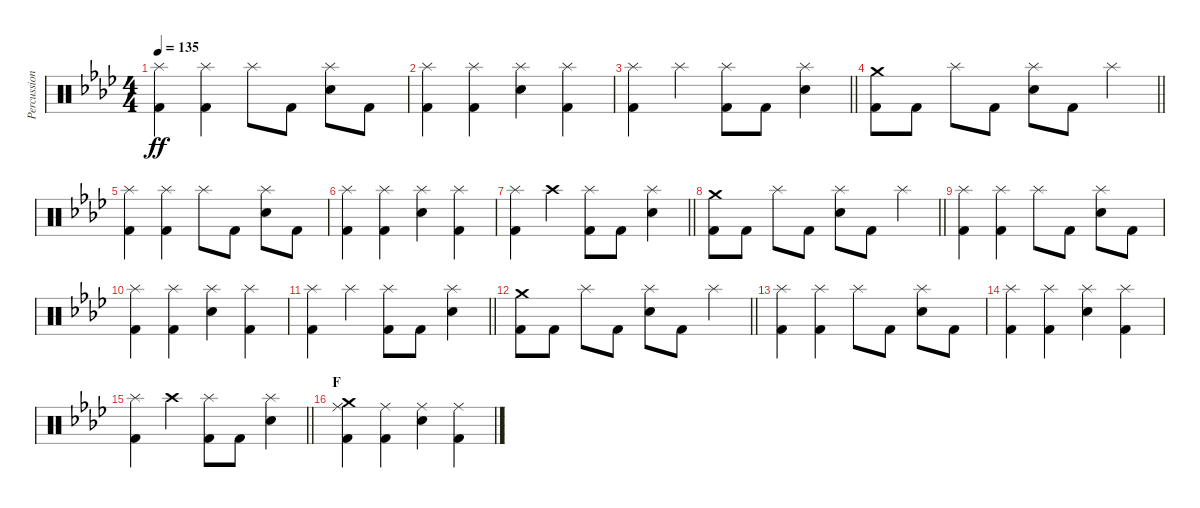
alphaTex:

\track ("Percussion" "Percussion") {instrument percussion}
\staff {score}
\articulation defaults
\ts (4 4)
\tempo 135
\clef neutral
\ks fminor
("Splash (hit)" "Kick (hit) 2").4{dy ff} ("Splash (hit)" "Kick (hit) 2").4 "Splash (hit)".8 "Kick (hit) 2".8 ("Splash (hit)" "Electric Snare (hit)").8 "Kick (hit) 2".8 |
("Splash (hit)" "Kick (hit) 2").4 ("Splash (hit)" "Kick (hit) 2").4 ("Splash (hit)" "Electric Snare (hit)").4 ("Splash (hit)" "Kick (hit) 2").4 |
\barLineRight lightlight
("Splash (hit)" "Kick (hit) 2").4 "Splash (hit)".4 ("Splash (hit)" "Kick (hit) 2").8 "Kick (hit) 2".8 ("Splash (hit)" "Electric Snare (hit)").4 |
\section ("" "")
\barLineRight lightlight
("Crash medium (hit)" "Kick (hit) 2").8 "Kick (hit) 2".8 "Splash (hit)".8 "Kick (hit) 2".8 ("Splash (hit)" "Electric Snare (hit)").8 "Kick (hit) 2".8 "Splash (hit)".4 |
("Splash (hit)" "Kick (hit) 2").4 ("Splash (hit)" "Kick (hit) 2").4 "Splash (hit)".8 "Kick (hit) 2".8 ("Splash (hit)" "Electric Snare (hit)").8 "Kick (hit) 2".8 |
("Splash (hit)" "Kick (hit) 2").4 ("Splash (hit)" "Kick (hit) 2").4 ("Splash (hit)" "Electric Snare (hit)").4 ("Splash (hit)" "Kick (hit) 2").4 |
\barLineRight lightlight
("Splash (hit)" "Kick (hit) 2").4 "Crash high (hit)".4 ("Splash (hit)" "Kick (hit) 2").8 "Kick (hit) 2".8 ("Splash (hit)" "Electric Snare (hit)").4 |
\section ("" "")
\barLineRight lightlight
("Crash medium (hit)" "Kick (hit) 2").8 "Kick (hit) 2".8 "Splash (hit)".8 "Kick (hit) 2".8 ("Splash (hit)" "Electric Snare (hit)").8 "Kick (hit) 2".8 "Splash (hit)".4 |
("Splash (hit)" "Kick (hit) 2").4 ("Splash (hit)" "Kick (hit) 2").4 "Splash (hit)".8 "Kick (hit) 2".8 ("Splash (hit)" "Electric Snare (hit)").8 "Kick (hit) 2".8 |
("Splash (hit)" "Kick (hit) 2").4 ("Splash (hit)" "Kick (hit) 2").4 ("Splash (hit)" "Electric Snare (hit)").4 ("Splash (hit)" "Kick (hit) 2").4 |
\barLineRight lightlight
("Splash (hit)" "Kick (hit) 2").4 "Splash (hit)".4 ("Splash (hit)" "Kick (hit) 2").8 "Kick (hit) 2".8 ("Splash (hit)" "Electric Snare (hit)").4 |
\section ("" "")
\barLineRight lightlight
("Crash medium (hit)" "Kick (hit) 2").8 "Kick (hit) 2".8 "Splash (hit)".8 "Kick (hit) 2".8 ("Splash (hit)" "Electric Snare (hit)").8 "Kick (hit) 2".8 "Splash (hit)".4 |
("Splash (hit)" "Kick (hit) 2").4 ("Splash (hit)" "Kick (hit) 2").4 "Splash (hit)".8 "Kick (hit) 2".8 ("Splash (hit)" "Electric Snare (hit)").8 "Kick (hit) 2".8 |
("Splash (hit)" "Kick (hit) 2").4 ("Splash (hit)" "Kick (hit) 2").4 ("Splash (hit)" "Electric Snare (hit)").4 ("Splash (hit)" "Kick (hit) 2").4 |
\barLineRight lightlight
("Splash (hit)" "Kick (hit) 2").4 "Crash high (hit)".4 ("Splash (hit)" "Kick (hit) 2").8 "Kick (hit) 2".8 ("Splash (hit)" "Electric Snare (hit)").4 |
\section ("" "F")
("Crash medium (hit)" "Ride (middle)" "Kick (hit) 2").4 ("Ride (middle)" "Kick (hit) 2").4 ("Ride (middle)" "Snare (hit) 2").4 ("Ride (middle)" "Kick (hit) 2").4
